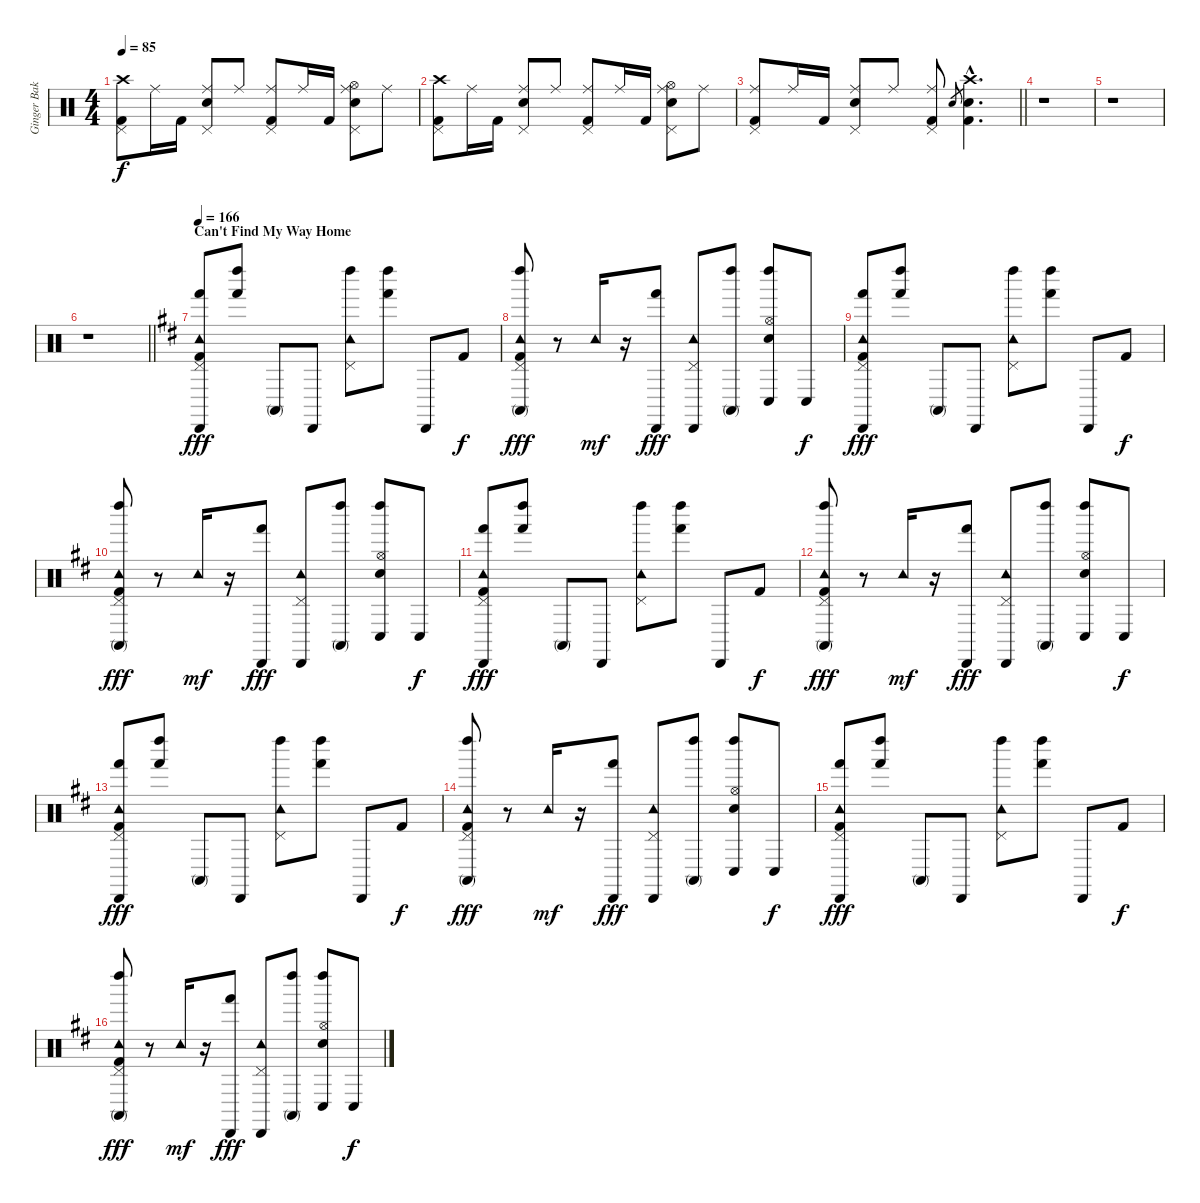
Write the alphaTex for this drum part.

\track ("Ginger Baker (Drums)" "Ginger Bak") {instrument percussion}
\staff {score}
\articulation defaults
\ts (4 4)
\tempo 85
\clef neutral
\ks c
("Crash high (hit)" "Pedal Hi-Hat (hit)" "Kick (hit) 2").8{dy f} "Ride (middle)".16 "Kick (hit) 2".16 ("Ride (middle)" "Pedal Hi-Hat (hit)" "Snare (hit) 2").8 "Ride (middle)".8 ("Ride (middle)" "Pedal Hi-Hat (hit)" "Kick (hit) 2").8 "Ride (middle)".16 "Kick (hit) 2".16 ("Ride (middle)" "Hi-Hat (open)" "Pedal Hi-Hat (hit)" "Snare (hit) 2").8 "Ride (middle)".8 |
("Crash high (hit)" "Pedal Hi-Hat (hit)" "Kick (hit) 2").8 "Ride (middle)".16 "Kick (hit) 2".16 ("Ride (middle)" "Pedal Hi-Hat (hit)" "Snare (hit) 2").8 "Ride (middle)".8 ("Ride (middle)" "Pedal Hi-Hat (hit)" "Kick (hit) 2").8 "Ride (middle)".16 "Kick (hit) 2".16 ("Ride (middle)" "Hi-Hat (open)" "Pedal Hi-Hat (hit)" "Snare (hit) 2").8 "Ride (middle)".8 |
\barLineRight lightlight
("Ride (middle)" "Pedal Hi-Hat (hit)" "Kick (hit) 2").8 "Ride (middle)".16 "Kick (hit) 2".16 ("Ride (middle)" "Pedal Hi-Hat (hit)" "Snare (hit) 2").8 "Ride (middle)".8 ("Ride (middle)" "Pedal Hi-Hat (hit)" "Kick (hit) 2").8 "Snare (hit) 2".8{gr} ("Crash high (hit)"{hac} "Snare (hit) 2"{hac} "Kick (hit) 2"{hac}).4{d} |
r.1 |
r.1 |
\barLineRight lightlight
r.1 |
\section ("" "Can't Find My Way Home")
\tempo 166
\ks d
("Tambourine (hit)" "Pedal Hi-Hat (hit)" "Kick (hit) 2" "Hand (hit)" "Cabasa (hit)").8{dy fff} ("Hand (hit)" "Left Maraca (hit)").8 "Conga high (mute)".8 "Cabasa (hit)".8 ("Tambourine (hit)" "Pedal Hi-Hat (hit)" "Left Maraca (hit)").8 ("Left Maraca (hit)" "Hand (hit)").8 "Cabasa (hit)".8 "Kick (hit) 2".8{dy f} |
("Tambourine (hit)" "Pedal Hi-Hat (hit)" "Left Maraca (hit)" "Conga high (mute)" "Kick (hit) 2").8{dy fff} r.8 "Tambourine (hit)".16{dy mf} r.16 ("Cabasa (hit)" "Hand (hit)").8{dy fff} ("Tambourine (hit)" "Pedal Hi-Hat (hit)" "Cabasa (hit)").8 ("Left Maraca (hit)" "Conga high (mute)").8 ("Hi-Hat (open)" "Snare (hit) 2" "Left Maraca (hit)" "Conga low (hit)").8 "Conga low (hit)".8{dy f} |
("Tambourine (hit)" "Pedal Hi-Hat (hit)" "Kick (hit) 2" "Hand (hit)" "Cabasa (hit)").8{dy fff} ("Hand (hit)" "Left Maraca (hit)").8 "Conga high (mute)".8 "Cabasa (hit)".8 ("Tambourine (hit)" "Pedal Hi-Hat (hit)" "Left Maraca (hit)").8 ("Left Maraca (hit)" "Hand (hit)").8 "Cabasa (hit)".8 "Kick (hit) 2".8{dy f} |
("Tambourine (hit)" "Pedal Hi-Hat (hit)" "Left Maraca (hit)" "Conga high (mute)" "Kick (hit) 2").8{dy fff} r.8 "Tambourine (hit)".16{dy mf} r.16 ("Cabasa (hit)" "Hand (hit)").8{dy fff} ("Tambourine (hit)" "Pedal Hi-Hat (hit)" "Cabasa (hit)").8 ("Left Maraca (hit)" "Conga high (mute)").8 ("Hi-Hat (open)" "Snare (hit) 2" "Left Maraca (hit)" "Conga low (hit)").8 "Conga low (hit)".8{dy f} |
("Tambourine (hit)" "Pedal Hi-Hat (hit)" "Kick (hit) 2" "Hand (hit)" "Cabasa (hit)").8{dy fff} ("Hand (hit)" "Left Maraca (hit)").8 "Conga high (mute)".8 "Cabasa (hit)".8 ("Tambourine (hit)" "Pedal Hi-Hat (hit)" "Left Maraca (hit)").8 ("Left Maraca (hit)" "Hand (hit)").8 "Cabasa (hit)".8 "Kick (hit) 2".8{dy f} |
("Tambourine (hit)" "Pedal Hi-Hat (hit)" "Left Maraca (hit)" "Conga high (mute)" "Kick (hit) 2").8{dy fff} r.8 "Tambourine (hit)".16{dy mf} r.16 ("Cabasa (hit)" "Hand (hit)").8{dy fff} ("Tambourine (hit)" "Pedal Hi-Hat (hit)" "Cabasa (hit)").8 ("Left Maraca (hit)" "Conga high (mute)").8 ("Hi-Hat (open)" "Snare (hit) 2" "Left Maraca (hit)" "Conga low (hit)").8 "Conga low (hit)".8{dy f} |
("Tambourine (hit)" "Pedal Hi-Hat (hit)" "Kick (hit) 2" "Hand (hit)" "Cabasa (hit)").8{dy fff} ("Hand (hit)" "Left Maraca (hit)").8 "Conga high (mute)".8 "Cabasa (hit)".8 ("Tambourine (hit)" "Pedal Hi-Hat (hit)" "Left Maraca (hit)").8 ("Left Maraca (hit)" "Hand (hit)").8 "Cabasa (hit)".8 "Kick (hit) 2".8{dy f} |
("Tambourine (hit)" "Pedal Hi-Hat (hit)" "Left Maraca (hit)" "Conga high (mute)" "Kick (hit) 2").8{dy fff} r.8 "Tambourine (hit)".16{dy mf} r.16 ("Cabasa (hit)" "Hand (hit)").8{dy fff} ("Tambourine (hit)" "Pedal Hi-Hat (hit)" "Cabasa (hit)").8 ("Left Maraca (hit)" "Conga high (mute)").8 ("Hi-Hat (open)" "Snare (hit) 2" "Left Maraca (hit)" "Conga low (hit)").8 "Conga low (hit)".8{dy f} |
("Tambourine (hit)" "Pedal Hi-Hat (hit)" "Kick (hit) 2" "Hand (hit)" "Cabasa (hit)").8{dy fff} ("Hand (hit)" "Left Maraca (hit)").8 "Conga high (mute)".8 "Cabasa (hit)".8 ("Tambourine (hit)" "Pedal Hi-Hat (hit)" "Left Maraca (hit)").8 ("Left Maraca (hit)" "Hand (hit)").8 "Cabasa (hit)".8 "Kick (hit) 2".8{dy f} |
("Tambourine (hit)" "Pedal Hi-Hat (hit)" "Left Maraca (hit)" "Conga high (mute)" "Kick (hit) 2").8{dy fff} r.8 "Tambourine (hit)".16{dy mf} r.16 ("Cabasa (hit)" "Hand (hit)").8{dy fff} ("Tambourine (hit)" "Pedal Hi-Hat (hit)" "Cabasa (hit)").8 ("Left Maraca (hit)" "Conga high (mute)").8 ("Hi-Hat (open)" "Snare (hit) 2" "Left Maraca (hit)" "Conga low (hit)").8 "Conga low (hit)".8{dy f}
